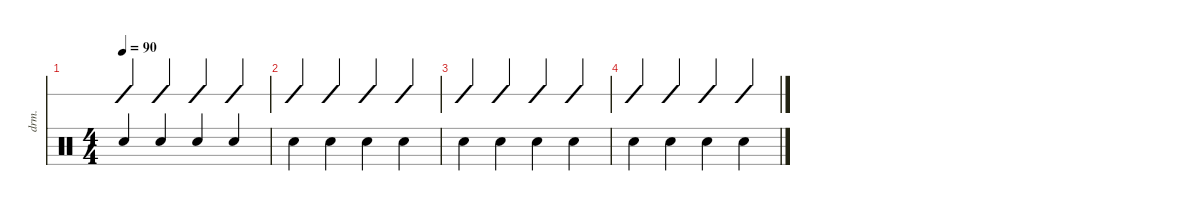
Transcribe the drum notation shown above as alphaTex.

\defaultSystemsLayout 4
\hideDynamics
\bracketExtendMode nobrackets
\otherSystemsTrackNameOrientation horizontal
\track ("Drumkit" "drm.") {instrument percussion}
\staff {score slash}
\articulation defaults
\ts (4 4)
\tempo 90
\clef neutral
\ks c "Snare (hit) 2".4{dy mf beam Up} "Snare (hit) 2".4{beam Up} "Snare (hit) 2".4{beam Up} "Snare (hit) 2".4{beam Up}
|
"Snare (hit) 2".4{beam Down} "Snare (hit) 2".4{beam Down} "Snare (hit) 2".4{beam Down} "Snare (hit) 2".4{beam Down} |
"Snare (hit) 2".4{beam Down} "Snare (hit) 2".4{beam Down} "Snare (hit) 2".4{beam Down} "Snare (hit) 2".4{beam Down} |
"Snare (hit) 2".4{beam Down} "Snare (hit) 2".4{beam Down} "Snare (hit) 2".4{beam Down} "Snare (hit) 2".4{beam Down}
